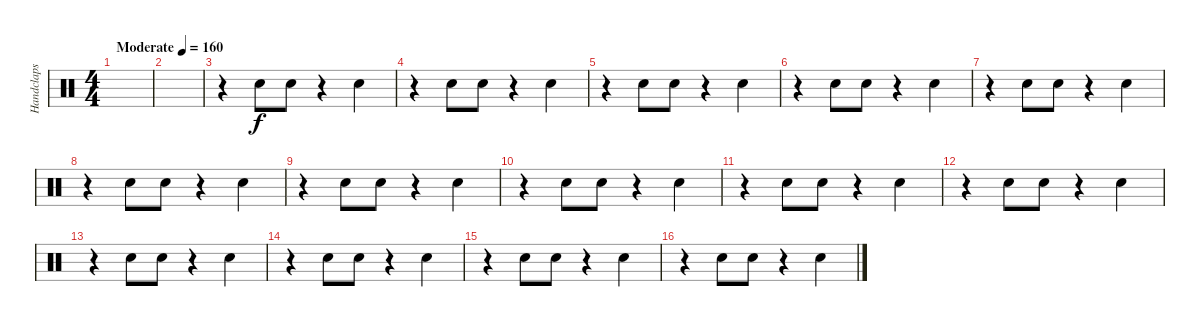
\track ("Handclaps" "Handclaps") {instrument percussion}
\staff {score}
\articulation defaults
\ts (4 4)
\tempo (160 "Moderate")
\clef neutral
\ks c
|
|
r.4 "Hand Clap (hit)".8 "Hand Clap (hit)".8 r.4 "Hand Clap (hit)".4 |
r.4 "Hand Clap (hit)".8 "Hand Clap (hit)".8 r.4 "Hand Clap (hit)".4 |
r.4 "Hand Clap (hit)".8 "Hand Clap (hit)".8 r.4 "Hand Clap (hit)".4 |
r.4 "Hand Clap (hit)".8 "Hand Clap (hit)".8 r.4 "Hand Clap (hit)".4 |
r.4 "Hand Clap (hit)".8 "Hand Clap (hit)".8 r.4 "Hand Clap (hit)".4 |
r.4 "Hand Clap (hit)".8 "Hand Clap (hit)".8 r.4 "Hand Clap (hit)".4 |
r.4 "Hand Clap (hit)".8 "Hand Clap (hit)".8 r.4 "Hand Clap (hit)".4 |
r.4 "Hand Clap (hit)".8 "Hand Clap (hit)".8 r.4 "Hand Clap (hit)".4 |
r.4 "Hand Clap (hit)".8 "Hand Clap (hit)".8 r.4 "Hand Clap (hit)".4 |
r.4 "Hand Clap (hit)".8 "Hand Clap (hit)".8 r.4 "Hand Clap (hit)".4 |
r.4 "Hand Clap (hit)".8 "Hand Clap (hit)".8 r.4 "Hand Clap (hit)".4 |
r.4 "Hand Clap (hit)".8 "Hand Clap (hit)".8 r.4 "Hand Clap (hit)".4 |
r.4 "Hand Clap (hit)".8 "Hand Clap (hit)".8 r.4 "Hand Clap (hit)".4 |
r.4 "Hand Clap (hit)".8 "Hand Clap (hit)".8 r.4 "Hand Clap (hit)".4
